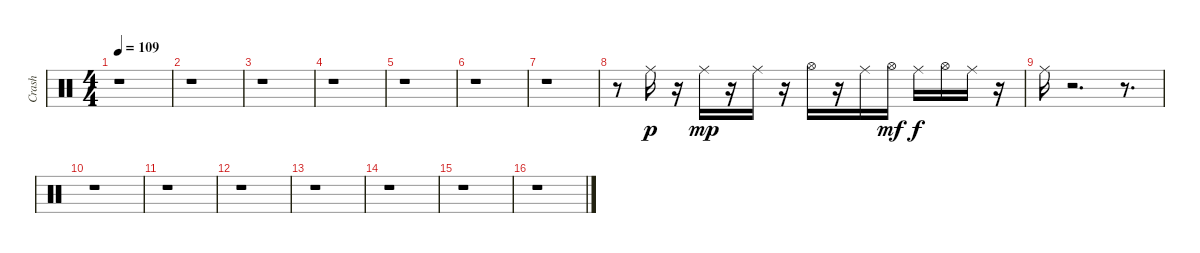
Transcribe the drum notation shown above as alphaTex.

\track ("Crash" "Crash") {instrument percussion}
\staff {score}
\articulation defaults
\ts (4 4)
\tempo 109
\clef neutral
\ks c
r.1{dy p} |
r.1 |
r.1 |
r.1 |
r.1 |
r.1 |
r.1 |
r.8 "Ride (middle)".16{volume 16} r.16 "Ride (middle)".16{dy mp} r.16 "Ride (middle)".16 r.16 "Hi-Hat (open)".16 r.16 "Ride (middle)".16 "Hi-Hat (open)".16{dy mf} "Ride (middle)".16{dy f} "Hi-Hat (open)".16 "Ride (middle)".16 r.16 |
"Ride (middle)".16 r.2{d} r.8{d} |
r.1 |
r.1 |
r.1 |
r.1 |
r.1 |
r.1 |
r.1
